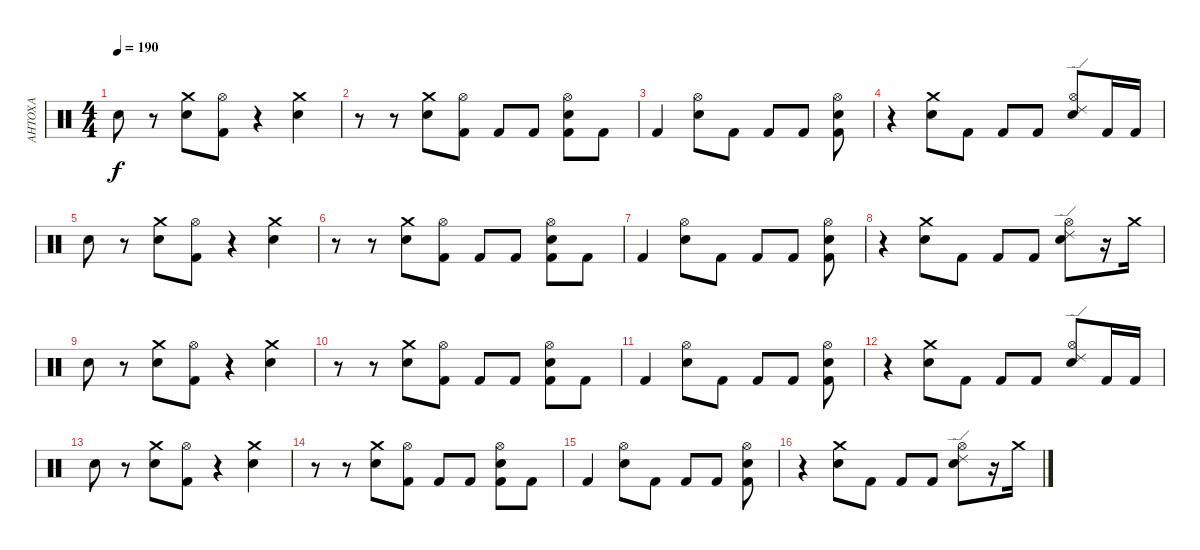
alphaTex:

\track ("АНТОХА" "АНТОХА") {instrument percussion}
\staff {score}
\articulation defaults
\ts (4 4)
\tempo 190
\clef neutral
\ks c "Electric Snare (hit)".8{dy f}
r.8 ("Electric Snare (hit)" "Crash medium (hit)").8 ("Kick (hit) 2" "Hi-Hat (open)").8 r.4 ("Electric Snare (hit)" "Crash medium (hit)").4 |
r.8 r.8 ("Electric Snare (hit)" "Crash medium (hit)").8 ("Kick (hit) 2" "Hi-Hat (open)").8 "Kick (hit) 2".8 "Kick (hit) 2".8 ("Kick (hit) 2" "Electric Snare (hit)" "Hi-Hat (open)").8 "Kick (hit) 2".8 |
"Kick (hit) 2".4 ("Electric Snare (hit)" "Hi-Hat (open)").8 "Kick (hit) 2".8 "Kick (hit) 2".8 "Kick (hit) 2".8 ("Kick (hit) 2" "Hi-Hat (open)" "Electric Snare (hit)").8 |
r.4 ("Electric Snare (hit)" "Crash medium (hit)").8 "Kick (hit) 2".8 "Kick (hit) 2".8 "Kick (hit) 2".8 ("Hi-Hat (open)" "Electric Snare (hit)" "Ride (edge) 2").8 "Kick (hit) 2".16 "Kick (hit) 2".16 |
"Electric Snare (hit)".8 r.8 ("Electric Snare (hit)" "Crash medium (hit)").8 ("Kick (hit) 2" "Hi-Hat (open)").8 r.4 ("Electric Snare (hit)" "Crash medium (hit)").4 |
r.8 r.8 ("Electric Snare (hit)" "Crash medium (hit)").8 ("Kick (hit) 2" "Hi-Hat (open)").8 "Kick (hit) 2".8 "Kick (hit) 2".8 ("Kick (hit) 2" "Electric Snare (hit)" "Hi-Hat (open)").8 "Kick (hit) 2".8 |
"Kick (hit) 2".4 ("Electric Snare (hit)" "Hi-Hat (open)").8 "Kick (hit) 2".8 "Kick (hit) 2".8 "Kick (hit) 2".8 ("Kick (hit) 2" "Hi-Hat (open)" "Electric Snare (hit)").8 |
r.4 ("Electric Snare (hit)" "Crash medium (hit)").8 "Kick (hit) 2".8 "Kick (hit) 2".8 "Kick (hit) 2".8 ("Hi-Hat (open)" "Electric Snare (hit)" "Ride (edge) 2").8 r.16 "Crash medium (hit)".16 |
"Electric Snare (hit)".8 r.8 ("Electric Snare (hit)" "Crash medium (hit)").8 ("Kick (hit) 2" "Hi-Hat (open)").8 r.4 ("Electric Snare (hit)" "Crash medium (hit)").4 |
r.8 r.8 ("Electric Snare (hit)" "Crash medium (hit)").8 ("Kick (hit) 2" "Hi-Hat (open)").8 "Kick (hit) 2".8 "Kick (hit) 2".8 ("Kick (hit) 2" "Electric Snare (hit)" "Hi-Hat (open)").8 "Kick (hit) 2".8 |
"Kick (hit) 2".4 ("Electric Snare (hit)" "Hi-Hat (open)").8 "Kick (hit) 2".8 "Kick (hit) 2".8 "Kick (hit) 2".8 ("Kick (hit) 2" "Hi-Hat (open)" "Electric Snare (hit)").8 |
r.4 ("Electric Snare (hit)" "Crash medium (hit)").8 "Kick (hit) 2".8 "Kick (hit) 2".8 "Kick (hit) 2".8 ("Hi-Hat (open)" "Electric Snare (hit)" "Ride (edge) 2").8 "Kick (hit) 2".16 "Kick (hit) 2".16 |
"Electric Snare (hit)".8 r.8 ("Electric Snare (hit)" "Crash medium (hit)").8 ("Kick (hit) 2" "Hi-Hat (open)").8 r.4 ("Electric Snare (hit)" "Crash medium (hit)").4 |
r.8 r.8 ("Electric Snare (hit)" "Crash medium (hit)").8 ("Kick (hit) 2" "Hi-Hat (open)").8 "Kick (hit) 2".8 "Kick (hit) 2".8 ("Kick (hit) 2" "Electric Snare (hit)" "Hi-Hat (open)").8 "Kick (hit) 2".8 |
"Kick (hit) 2".4 ("Electric Snare (hit)" "Hi-Hat (open)").8 "Kick (hit) 2".8 "Kick (hit) 2".8 "Kick (hit) 2".8 ("Kick (hit) 2" "Hi-Hat (open)" "Electric Snare (hit)").8 |
r.4 ("Electric Snare (hit)" "Crash medium (hit)").8 "Kick (hit) 2".8 "Kick (hit) 2".8 "Kick (hit) 2".8 ("Hi-Hat (open)" "Electric Snare (hit)" "Ride (edge) 2").8 r.16 "Crash medium (hit)".16
